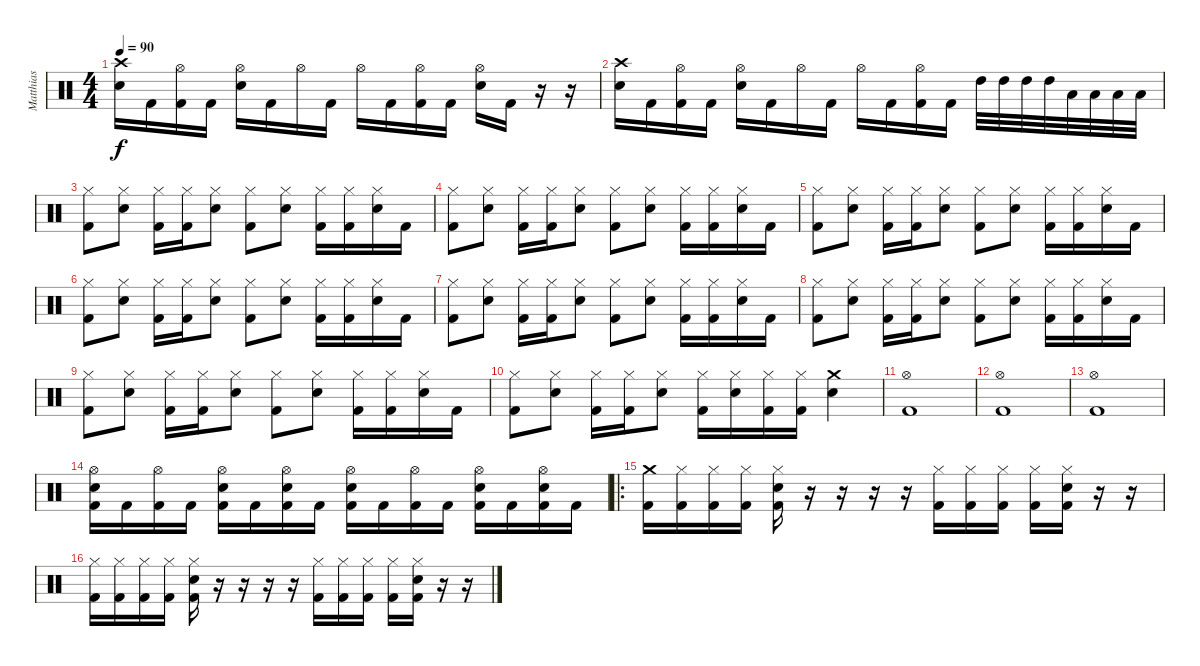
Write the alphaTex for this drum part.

\track ("Matthias" "Matthias") {instrument percussion}
\staff {score}
\articulation defaults
\ts (4 4)
\tempo 90
\clef neutral
\ks c
("Snare (hit) 2" "Crash high (hit)").16{dy f} "Kick (hit) 2".16 ("Kick (hit) 2" "Hi-Hat (open)").16 "Kick (hit) 2".16 ("Snare (hit) 2" "Hi-Hat (open)").16 "Kick (hit) 2".16 "Hi-Hat (open)".16 "Kick (hit) 2".16 "Hi-Hat (open)".16 "Kick (hit) 2".16 ("Kick (hit) 2" "Hi-Hat (open)").16 "Kick (hit) 2".16 ("Snare (hit) 2" "Hi-Hat (open)").16 "Kick (hit) 2".16 r.16 r.16 |
("Snare (hit) 2" "Crash high (hit)").16 "Kick (hit) 2".16 ("Kick (hit) 2" "Hi-Hat (open)").16 "Kick (hit) 2".16 ("Snare (hit) 2" "Hi-Hat (open)").16 "Kick (hit) 2".16 "Hi-Hat (open)".16 "Kick (hit) 2".16 "Hi-Hat (open)".16 "Kick (hit) 2".16 ("Kick (hit) 2" "Hi-Hat (open)").16 "Kick (hit) 2".16 "High Tom (hit)".32 "High Tom (hit)".32 "High Tom (hit)".32 "High Tom (hit)".32 "Low Tom (hit)".32 "Low Tom (hit)".32 "Low Tom (hit)".32 "Low Tom (hit)".32 |
("Kick (hit) 2" "Hi-Hat (closed)").8 ("Snare (hit) 2" "Hi-Hat (closed)").8 ("Kick (hit) 2" "Hi-Hat (closed)").16 ("Kick (hit) 2" "Hi-Hat (closed)").16 ("Snare (hit) 2" "Hi-Hat (closed)").8 ("Kick (hit) 2" "Hi-Hat (closed)").8 ("Snare (hit) 2" "Hi-Hat (closed)").8 ("Kick (hit) 2" "Hi-Hat (closed)").16 ("Kick (hit) 2" "Hi-Hat (closed)").16 ("Snare (hit) 2" "Hi-Hat (closed)").16 "Kick (hit) 2".16 |
("Kick (hit) 2" "Hi-Hat (closed)").8 ("Snare (hit) 2" "Hi-Hat (closed)").8 ("Kick (hit) 2" "Hi-Hat (closed)").16 ("Kick (hit) 2" "Hi-Hat (closed)").16 ("Snare (hit) 2" "Hi-Hat (closed)").8 ("Kick (hit) 2" "Hi-Hat (closed)").8 ("Snare (hit) 2" "Hi-Hat (closed)").8 ("Kick (hit) 2" "Hi-Hat (closed)").16 ("Kick (hit) 2" "Hi-Hat (closed)").16 ("Snare (hit) 2" "Hi-Hat (closed)").16 "Kick (hit) 2".16 |
("Kick (hit) 2" "Hi-Hat (closed)").8 ("Snare (hit) 2" "Hi-Hat (closed)").8 ("Kick (hit) 2" "Hi-Hat (closed)").16 ("Kick (hit) 2" "Hi-Hat (closed)").16 ("Snare (hit) 2" "Hi-Hat (closed)").8 ("Kick (hit) 2" "Hi-Hat (closed)").8 ("Snare (hit) 2" "Hi-Hat (closed)").8 ("Kick (hit) 2" "Hi-Hat (closed)").16 ("Kick (hit) 2" "Hi-Hat (closed)").16 ("Snare (hit) 2" "Hi-Hat (closed)").16 "Kick (hit) 2".16 |
("Kick (hit) 2" "Hi-Hat (closed)").8 ("Snare (hit) 2" "Hi-Hat (closed)").8 ("Kick (hit) 2" "Hi-Hat (closed)").16 ("Kick (hit) 2" "Hi-Hat (closed)").16 ("Snare (hit) 2" "Hi-Hat (closed)").8 ("Kick (hit) 2" "Hi-Hat (closed)").8 ("Snare (hit) 2" "Hi-Hat (closed)").8 ("Kick (hit) 2" "Hi-Hat (closed)").16 ("Kick (hit) 2" "Hi-Hat (closed)").16 ("Snare (hit) 2" "Hi-Hat (closed)").16 "Kick (hit) 2".16 |
("Kick (hit) 2" "Hi-Hat (closed)").8 ("Snare (hit) 2" "Hi-Hat (closed)").8 ("Kick (hit) 2" "Hi-Hat (closed)").16 ("Kick (hit) 2" "Hi-Hat (closed)").16 ("Snare (hit) 2" "Hi-Hat (closed)").8 ("Kick (hit) 2" "Hi-Hat (closed)").8 ("Snare (hit) 2" "Hi-Hat (closed)").8 ("Kick (hit) 2" "Hi-Hat (closed)").16 ("Kick (hit) 2" "Hi-Hat (closed)").16 ("Snare (hit) 2" "Hi-Hat (closed)").16 "Kick (hit) 2".16 |
("Kick (hit) 2" "Hi-Hat (closed)").8 ("Snare (hit) 2" "Hi-Hat (closed)").8 ("Kick (hit) 2" "Hi-Hat (closed)").16 ("Kick (hit) 2" "Hi-Hat (closed)").16 ("Snare (hit) 2" "Hi-Hat (closed)").8 ("Kick (hit) 2" "Hi-Hat (closed)").8 ("Snare (hit) 2" "Hi-Hat (closed)").8 ("Kick (hit) 2" "Hi-Hat (closed)").16 ("Kick (hit) 2" "Hi-Hat (closed)").16 ("Snare (hit) 2" "Hi-Hat (closed)").16 "Kick (hit) 2".16 |
("Kick (hit) 2" "Hi-Hat (closed)").8 ("Snare (hit) 2" "Hi-Hat (closed)").8 ("Kick (hit) 2" "Hi-Hat (closed)").16 ("Kick (hit) 2" "Hi-Hat (closed)").16 ("Snare (hit) 2" "Hi-Hat (closed)").8 ("Kick (hit) 2" "Hi-Hat (closed)").8 ("Snare (hit) 2" "Hi-Hat (closed)").8 ("Kick (hit) 2" "Hi-Hat (closed)").16 ("Kick (hit) 2" "Hi-Hat (closed)").16 ("Snare (hit) 2" "Hi-Hat (closed)").16 "Kick (hit) 2".16 |
("Kick (hit) 2" "Hi-Hat (closed)").8 ("Snare (hit) 2" "Hi-Hat (closed)").8 ("Kick (hit) 2" "Hi-Hat (closed)").16 ("Kick (hit) 2" "Hi-Hat (closed)").16 ("Snare (hit) 2" "Hi-Hat (closed)").8 ("Kick (hit) 2" "Hi-Hat (closed)").16 ("Snare (hit) 2" "Hi-Hat (closed)").16 ("Kick (hit) 2" "Hi-Hat (closed)").16 ("Kick (hit) 2" "Hi-Hat (closed)").16 ("Snare (hit) 2" "Crash medium (hit)").4 |
("Kick (hit) 2" "Hi-Hat (open)").1 |
("Kick (hit) 2" "Hi-Hat (open)").1 |
("Kick (hit) 2" "Hi-Hat (open)").1 |
("Kick (hit) 2" "Snare (hit) 2" "Hi-Hat (open)").16 "Kick (hit) 2".16 ("Kick (hit) 2" "Hi-Hat (open)").16 "Kick (hit) 2".16 ("Kick (hit) 2" "Snare (hit) 2" "Hi-Hat (open)").16 "Kick (hit) 2".16 ("Kick (hit) 2" "Snare (hit) 2" "Hi-Hat (open)").16 "Kick (hit) 2".16 ("Kick (hit) 2" "Snare (hit) 2" "Hi-Hat (open)").16 "Kick (hit) 2".16 ("Kick (hit) 2" "Hi-Hat (open)").16 "Kick (hit) 2".16 ("Kick (hit) 2" "Snare (hit) 2" "Hi-Hat (open)").16 "Kick (hit) 2".16 ("Kick (hit) 2" "Snare (hit) 2" "Hi-Hat (open)").16 "Kick (hit) 2".16 |
\ro
("Kick (hit) 2" "Crash medium (hit)").16 ("Kick (hit) 2" "Hi-Hat (closed)").16 ("Kick (hit) 2" "Hi-Hat (closed)").16 ("Kick (hit) 2" "Hi-Hat (closed)").16 ("Kick (hit) 2" "Snare (hit) 2" "Hi-Hat (closed)").16 r.16 r.16 r.16 r.16 ("Kick (hit) 2" "Hi-Hat (closed)").16 ("Kick (hit) 2" "Hi-Hat (closed)").16 ("Kick (hit) 2" "Hi-Hat (closed)").16 ("Kick (hit) 2" "Hi-Hat (closed)").16 ("Kick (hit) 2" "Snare (hit) 2" "Hi-Hat (closed)").16 r.16 r.16 |
("Kick (hit) 2" "Hi-Hat (closed)").16 ("Kick (hit) 2" "Hi-Hat (closed)").16 ("Kick (hit) 2" "Hi-Hat (closed)").16 ("Kick (hit) 2" "Hi-Hat (closed)").16 ("Kick (hit) 2" "Snare (hit) 2" "Hi-Hat (closed)").16 r.16 r.16 r.16 r.16 ("Kick (hit) 2" "Hi-Hat (closed)").16 ("Kick (hit) 2" "Hi-Hat (closed)").16 ("Kick (hit) 2" "Hi-Hat (closed)").16 ("Kick (hit) 2" "Hi-Hat (closed)").16 ("Kick (hit) 2" "Snare (hit) 2" "Hi-Hat (closed)").16 r.16 r.16
